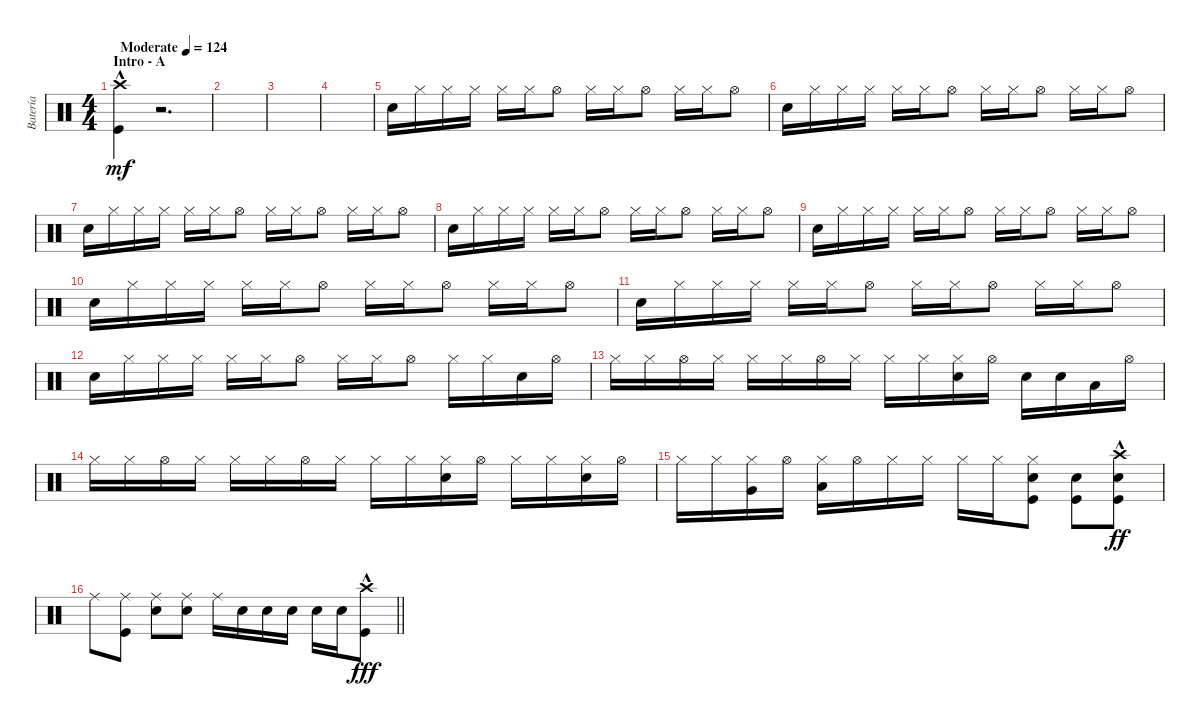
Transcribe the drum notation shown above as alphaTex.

\track ("Batería" "Batería") {instrument percussion}
\staff {score}
\articulation defaults
\ts (4 4)
\section ("" "Intro - A")
\tempo (124 "Moderate")
\clef neutral
\ks c
("Crash high (hit)"{hac} "Kick (hit)").4{dy mf} r.2{d} |
|
|
|
"Snare (hit) 2".16 "Hi-Hat (closed)".16 "Hi-Hat (closed)".16 "Hi-Hat (closed)".16 "Hi-Hat (closed)".16 "Hi-Hat (closed)".16 "Hi-Hat (open)".8 "Hi-Hat (closed)".16 "Hi-Hat (closed)".16 "Hi-Hat (open)".8 "Hi-Hat (closed)".16 "Hi-Hat (closed)".16 "Hi-Hat (open)".8 |
"Snare (hit) 2".16 "Hi-Hat (closed)".16 "Hi-Hat (closed)".16 "Hi-Hat (closed)".16 "Hi-Hat (closed)".16 "Hi-Hat (closed)".16 "Hi-Hat (open)".8 "Hi-Hat (closed)".16 "Hi-Hat (closed)".16 "Hi-Hat (open)".8 "Hi-Hat (closed)".16 "Hi-Hat (closed)".16 "Hi-Hat (open)".8 |
"Snare (hit) 2".16 "Hi-Hat (closed)".16 "Hi-Hat (closed)".16 "Hi-Hat (closed)".16 "Hi-Hat (closed)".16 "Hi-Hat (closed)".16 "Hi-Hat (open)".8 "Hi-Hat (closed)".16 "Hi-Hat (closed)".16 "Hi-Hat (open)".8 "Hi-Hat (closed)".16 "Hi-Hat (closed)".16 "Hi-Hat (open)".8 |
"Snare (hit) 2".16 "Hi-Hat (closed)".16 "Hi-Hat (closed)".16 "Hi-Hat (closed)".16 "Hi-Hat (closed)".16 "Hi-Hat (closed)".16 "Hi-Hat (open)".8 "Hi-Hat (closed)".16 "Hi-Hat (closed)".16 "Hi-Hat (open)".8 "Hi-Hat (closed)".16 "Hi-Hat (closed)".16 "Hi-Hat (open)".8 |
"Snare (hit) 2".16 "Hi-Hat (closed)".16 "Hi-Hat (closed)".16 "Hi-Hat (closed)".16 "Hi-Hat (closed)".16 "Hi-Hat (closed)".16 "Hi-Hat (open)".8 "Hi-Hat (closed)".16 "Hi-Hat (closed)".16 "Hi-Hat (open)".8 "Hi-Hat (closed)".16 "Hi-Hat (closed)".16 "Hi-Hat (open)".8 |
"Snare (hit) 2".16 "Hi-Hat (closed)".16 "Hi-Hat (closed)".16 "Hi-Hat (closed)".16 "Hi-Hat (closed)".16 "Hi-Hat (closed)".16 "Hi-Hat (open)".8 "Hi-Hat (closed)".16 "Hi-Hat (closed)".16 "Hi-Hat (open)".8 "Hi-Hat (closed)".16 "Hi-Hat (closed)".16 "Hi-Hat (open)".8 |
"Snare (hit) 2".16 "Hi-Hat (closed)".16 "Hi-Hat (closed)".16 "Hi-Hat (closed)".16 "Hi-Hat (closed)".16 "Hi-Hat (closed)".16 "Hi-Hat (open)".8 "Hi-Hat (closed)".16 "Hi-Hat (closed)".16 "Hi-Hat (open)".8 "Hi-Hat (closed)".16 "Hi-Hat (closed)".16 "Hi-Hat (open)".8 |
"Snare (hit) 2".16 "Hi-Hat (closed)".16 "Hi-Hat (closed)".16 "Hi-Hat (closed)".16 "Hi-Hat (closed)".16 "Hi-Hat (closed)".16 "Hi-Hat (open)".8 "Hi-Hat (closed)".16 "Hi-Hat (closed)".16 "Hi-Hat (open)".8 "Hi-Hat (closed)".16 "Hi-Hat (closed)".16 "Snare (hit) 2".16 "Hi-Hat (open)".16 |
"Hi-Hat (closed)".16 "Hi-Hat (closed)".16 "Hi-Hat (open)".16 "Hi-Hat (closed)".16 "Hi-Hat (closed)".16 "Hi-Hat (closed)".16 "Hi-Hat (open)".16 "Hi-Hat (closed)".16 "Hi-Hat (closed)".16 "Hi-Hat (closed)".16 ("Hi-Hat (closed)" "Snare (hit) 2").16 "Hi-Hat (open)".16 "Snare (hit) 2".16 "Snare (hit) 2".16 "Low Tom (hit)".16 "Hi-Hat (open)".16 |
"Hi-Hat (closed)".16 "Hi-Hat (closed)".16 "Hi-Hat (open)".16 "Hi-Hat (closed)".16 "Hi-Hat (closed)".16 "Hi-Hat (closed)".16 "Hi-Hat (open)".16 "Hi-Hat (closed)".16 "Hi-Hat (closed)".16 "Hi-Hat (closed)".16 ("Hi-Hat (closed)" "Snare (hit) 2").16 "Hi-Hat (open)".16 "Hi-Hat (closed)".16 "Hi-Hat (closed)".16 ("Hi-Hat (closed)" "Snare (hit) 2").16 "Hi-Hat (open)".16 |
"Hi-Hat (closed)".16 "Hi-Hat (closed)".16 ("Hi-Hat (closed)" "Very Low Tom (hit)").16 "Hi-Hat (open)".16 ("Low Floor Tom (hit)" "Hi-Hat (closed)").16 "Hi-Hat (open)".16 "Hi-Hat (closed)".16 "Hi-Hat (closed)".16 "Hi-Hat (closed)".16 "Hi-Hat (closed)".16 ("Hi-Hat (closed)" "Snare (hit) 2" "Kick (hit)").8 ("Kick (hit)" "Snare (hit) 2").8 ("Kick (hit)" "Snare (hit) 2" "Crash high (hit)"{hac}).8{dy ff} |
\barLineRight lightlight "Ride (middle)".8
("Ride (middle)" "Kick (hit)").8 ("Ride (middle)" "Snare (hit) 2").8 ("Ride (middle)" "Snare (hit) 2").8 "Ride (middle)".16 "Snare (hit) 2".16 "Snare (hit) 2".16 "Snare (hit) 2".16 "Snare (hit) 2".16 "Snare (hit) 2".16 ("Kick (hit)" "Crash high (hit)"{hac}).8{dy fff}
